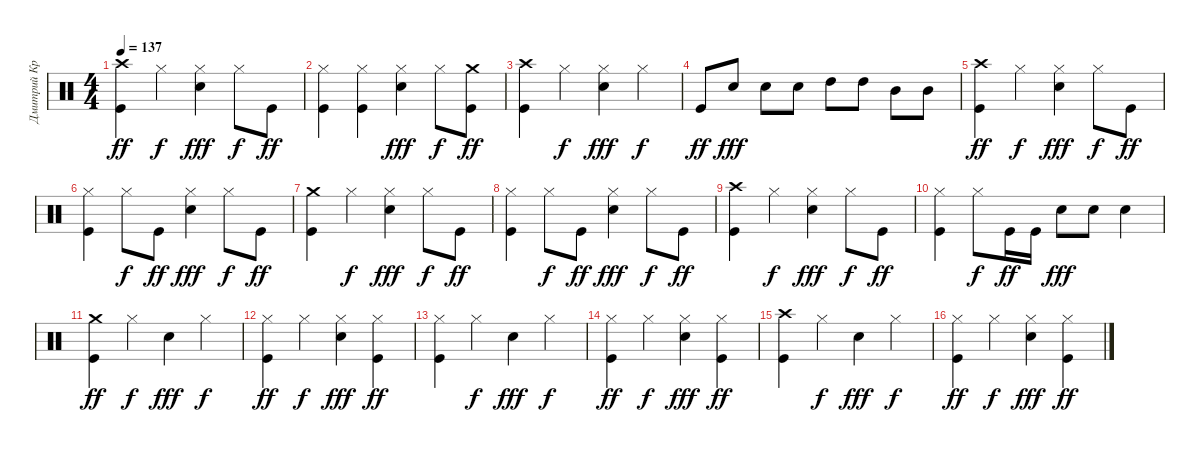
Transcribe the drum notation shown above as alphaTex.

\track ("Дмитрий Кревенков" "Дмитрий Кр") {instrument percussion}
\staff {score}
\articulation defaults
\ts (4 4)
\tempo 137
\clef neutral
\ks c
("Kick (hit)" "Crash high (hit)").4{dy ff} "Hi-Hat (closed)".4{dy f} ("Snare (hit) 2" "Hi-Hat (closed)").4{dy fff} "Hi-Hat (closed)".8{dy f} "Kick (hit)".8{dy ff} |
("Kick (hit)" "Hi-Hat (closed)").4 ("Kick (hit)" "Hi-Hat (closed)").4 ("Snare (hit) 2" "Hi-Hat (closed)").4{dy fff} "Hi-Hat (closed)".8{dy f} ("Crash medium (hit)" "Kick (hit)").8{dy ff} |
("Crash high (hit)" "Kick (hit)").4 "Hi-Hat (closed)".4{dy f} ("Snare (hit) 2" "Hi-Hat (closed)").4{dy fff} "Hi-Hat (closed)".4{dy f} |
"Kick (hit)".8{dy ff} "Snare (hit) 2".8{dy fff} "Snare (hit) 2".8 "Snare (hit) 2".8 "High Tom (hit)".8 "High Tom (hit)".8 "Mid Tom (hit)".8 "Mid Tom (hit)".8 |
("Crash high (hit)" "Kick (hit)").4{dy ff} "Hi-Hat (closed)".4{dy f} ("Snare (hit) 2" "Hi-Hat (closed)").4{dy fff} "Hi-Hat (closed)".8{dy f} "Kick (hit)".8{dy ff} |
("Kick (hit)" "Hi-Hat (closed)").4 "Hi-Hat (closed)".8{dy f} "Kick (hit)".8{dy ff} ("Snare (hit) 2" "Hi-Hat (closed)").4{dy fff} "Hi-Hat (closed)".8{dy f} "Kick (hit)".8{dy ff} |
("Crash medium (hit)" "Kick (hit)").4 "Hi-Hat (closed)".4{dy f} ("Snare (hit) 2" "Hi-Hat (closed)").4{dy fff} "Hi-Hat (closed)".8{dy f} "Kick (hit)".8{dy ff} |
("Kick (hit)" "Hi-Hat (closed)").4 "Hi-Hat (closed)".8{dy f} "Kick (hit)".8{dy ff} ("Snare (hit) 2" "Hi-Hat (closed)").4{dy fff} "Hi-Hat (closed)".8{dy f} "Kick (hit)".8{dy ff} |
("Crash high (hit)" "Kick (hit)").4 "Hi-Hat (closed)".4{dy f} ("Snare (hit) 2" "Hi-Hat (closed)").4{dy fff} "Hi-Hat (closed)".8{dy f} "Kick (hit)".8{dy ff} |
("Kick (hit)" "Hi-Hat (closed)").4 "Hi-Hat (closed)".8{dy f} "Kick (hit)".16{dy ff} "Kick (hit)".16 "Snare (hit) 2".8{dy fff} "Snare (hit) 2".8 "Snare (hit) 2".4 |
("Kick (hit)" "Crash medium (hit)").4{dy ff} "Hi-Hat (closed)".4{dy f} "Snare (hit) 2".4{dy fff} "Hi-Hat (closed)".4{dy f} |
("Kick (hit)" "Hi-Hat (closed)").4{dy ff} "Hi-Hat (closed)".4{dy f} ("Snare (hit) 2" "Hi-Hat (closed)").4{dy fff} ("Kick (hit)" "Hi-Hat (closed)").4{dy ff} |
("Hi-Hat (closed)" "Kick (hit)").4 "Hi-Hat (closed)".4{dy f} "Snare (hit) 2".4{dy fff} "Hi-Hat (closed)".4{dy f} |
("Kick (hit)" "Hi-Hat (closed)").4{dy ff} "Hi-Hat (closed)".4{dy f} ("Snare (hit) 2" "Hi-Hat (closed)").4{dy fff} ("Kick (hit)" "Hi-Hat (closed)").4{dy ff} |
("Crash high (hit)" "Kick (hit)").4 "Hi-Hat (closed)".4{dy f} "Snare (hit) 2".4{dy fff} "Hi-Hat (closed)".4{dy f} |
("Kick (hit)" "Hi-Hat (closed)").4{dy ff} "Hi-Hat (closed)".4{dy f} ("Snare (hit) 2" "Hi-Hat (closed)").4{dy fff} ("Kick (hit)" "Hi-Hat (closed)").4{dy ff}
